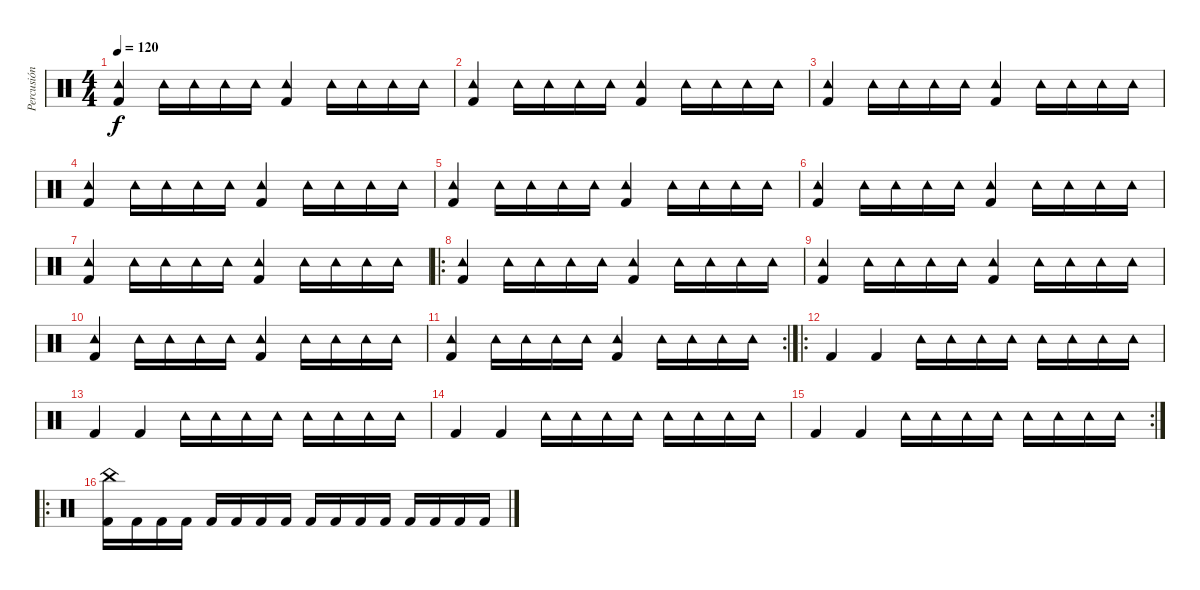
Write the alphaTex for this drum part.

\track ("Percusión" "Percusión") {instrument percussion}
\staff {score}
\articulation defaults
\ts (4 4)
\tempo 120
\clef neutral
\ks c
("Kick (hit) 2" "Tambourine (hit)").4{dy f} "Tambourine (hit)".16 "Tambourine (hit)".16 "Tambourine (hit)".16 "Tambourine (hit)".16 ("Kick (hit) 2" "Tambourine (hit)").4 "Tambourine (hit)".16 "Tambourine (hit)".16 "Tambourine (hit)".16 "Tambourine (hit)".16 |
("Kick (hit) 2" "Tambourine (hit)").4 "Tambourine (hit)".16 "Tambourine (hit)".16 "Tambourine (hit)".16 "Tambourine (hit)".16 ("Kick (hit) 2" "Tambourine (hit)").4 "Tambourine (hit)".16 "Tambourine (hit)".16 "Tambourine (hit)".16 "Tambourine (hit)".16 |
("Kick (hit) 2" "Tambourine (hit)").4 "Tambourine (hit)".16 "Tambourine (hit)".16 "Tambourine (hit)".16 "Tambourine (hit)".16 ("Kick (hit) 2" "Tambourine (hit)").4 "Tambourine (hit)".16 "Tambourine (hit)".16 "Tambourine (hit)".16 "Tambourine (hit)".16 |
("Kick (hit) 2" "Tambourine (hit)").4 "Tambourine (hit)".16 "Tambourine (hit)".16 "Tambourine (hit)".16 "Tambourine (hit)".16 ("Kick (hit) 2" "Tambourine (hit)").4 "Tambourine (hit)".16 "Tambourine (hit)".16 "Tambourine (hit)".16 "Tambourine (hit)".16 |
("Kick (hit) 2" "Tambourine (hit)").4 "Tambourine (hit)".16 "Tambourine (hit)".16 "Tambourine (hit)".16 "Tambourine (hit)".16 ("Kick (hit) 2" "Tambourine (hit)").4 "Tambourine (hit)".16 "Tambourine (hit)".16 "Tambourine (hit)".16 "Tambourine (hit)".16 |
("Kick (hit) 2" "Tambourine (hit)").4 "Tambourine (hit)".16 "Tambourine (hit)".16 "Tambourine (hit)".16 "Tambourine (hit)".16 ("Kick (hit) 2" "Tambourine (hit)").4 "Tambourine (hit)".16 "Tambourine (hit)".16 "Tambourine (hit)".16 "Tambourine (hit)".16 |
("Kick (hit) 2" "Tambourine (hit)").4 "Tambourine (hit)".16 "Tambourine (hit)".16 "Tambourine (hit)".16 "Tambourine (hit)".16 ("Kick (hit) 2" "Tambourine (hit)").4 "Tambourine (hit)".16 "Tambourine (hit)".16 "Tambourine (hit)".16 "Tambourine (hit)".16 |
\ro
("Kick (hit) 2" "Tambourine (hit)").4 "Tambourine (hit)".16 "Tambourine (hit)".16 "Tambourine (hit)".16 "Tambourine (hit)".16 ("Kick (hit) 2" "Tambourine (hit)").4 "Tambourine (hit)".16 "Tambourine (hit)".16 "Tambourine (hit)".16 "Tambourine (hit)".16 |
("Kick (hit) 2" "Tambourine (hit)").4 "Tambourine (hit)".16 "Tambourine (hit)".16 "Tambourine (hit)".16 "Tambourine (hit)".16 ("Kick (hit) 2" "Tambourine (hit)").4 "Tambourine (hit)".16 "Tambourine (hit)".16 "Tambourine (hit)".16 "Tambourine (hit)".16 |
("Kick (hit) 2" "Tambourine (hit)").4 "Tambourine (hit)".16 "Tambourine (hit)".16 "Tambourine (hit)".16 "Tambourine (hit)".16 ("Kick (hit) 2" "Tambourine (hit)").4 "Tambourine (hit)".16 "Tambourine (hit)".16 "Tambourine (hit)".16 "Tambourine (hit)".16 |
\rc 2
("Kick (hit) 2" "Tambourine (hit)").4 "Tambourine (hit)".16 "Tambourine (hit)".16 "Tambourine (hit)".16 "Tambourine (hit)".16 ("Kick (hit) 2" "Tambourine (hit)").4 "Tambourine (hit)".16 "Tambourine (hit)".16 "Tambourine (hit)".16 "Tambourine (hit)".16 |
\ro "Kick (hit) 2".4 "Kick (hit) 2".4 "Tambourine (hit)".16 "Tambourine (hit)".16 "Tambourine (hit)".16 "Tambourine (hit)".16 "Tambourine (hit)".16 "Tambourine (hit)".16 "Tambourine (hit)".16 "Tambourine (hit)".16
|
"Kick (hit) 2".4 "Kick (hit) 2".4 "Tambourine (hit)".16 "Tambourine (hit)".16 "Tambourine (hit)".16 "Tambourine (hit)".16 "Tambourine (hit)".16 "Tambourine (hit)".16 "Tambourine (hit)".16 "Tambourine (hit)".16 |
"Kick (hit) 2".4 "Kick (hit) 2".4 "Tambourine (hit)".16 "Tambourine (hit)".16 "Tambourine (hit)".16 "Tambourine (hit)".16 "Tambourine (hit)".16 "Tambourine (hit)".16 "Tambourine (hit)".16 "Tambourine (hit)".16 |
\rc 2 "Kick (hit) 2".4 "Kick (hit) 2".4 "Tambourine (hit)".16 "Tambourine (hit)".16 "Tambourine (hit)".16 "Tambourine (hit)".16 "Tambourine (hit)".16 "Tambourine (hit)".16 "Tambourine (hit)".16 "Tambourine (hit)".16
|
\ro
("Kick (hit) 2" "China (hit)").16 "Kick (hit) 2".16 "Kick (hit) 2".16 "Kick (hit) 2".16 "Kick (hit) 2".16 "Kick (hit) 2".16 "Kick (hit) 2".16 "Kick (hit) 2".16 "Kick (hit) 2".16 "Kick (hit) 2".16 "Kick (hit) 2".16 "Kick (hit) 2".16 "Kick (hit) 2".16 "Kick (hit) 2".16 "Kick (hit) 2".16 "Kick (hit) 2".16
